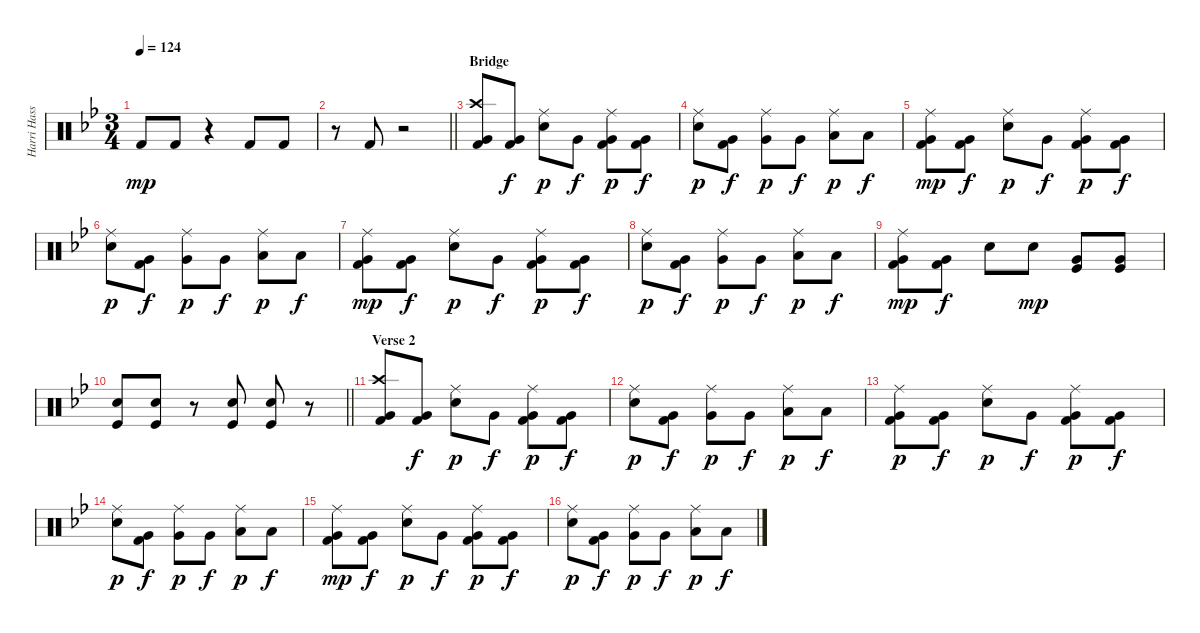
\track ("Harri Hassin (drums)" "Harri Hass") {instrument percussion}
\staff {score}
\articulation defaults
\ts (3 4)
\tempo 124
\clef neutral
\ks bb "Kick (hit) 2".8{dy mp} "Kick (hit) 2".8
r.4 "Kick (hit) 2".8 "Kick (hit) 2".8 |
\barLineRight lightlight
r.8 "Kick (hit) 2".8 r.2 |
\section ("" "Bridge")
("Crash high (hit)" "Very Low Tom (hit)" "Kick (hit) 2").8 ("Very Low Tom (hit)" "Kick (hit) 2").8{dy f} ("Ride (middle)" "Electric Snare (hit)").8{dy p} "Very Low Tom (hit)".8{dy f} ("Ride (middle)" "Very Low Tom (hit)" "Kick (hit) 2").8{dy p} ("Very Low Tom (hit)" "Kick (hit) 2").8{dy f} |
("Ride (middle)" "Electric Snare (hit)").8{dy p} ("Very Low Tom (hit)" "Kick (hit) 2").8{dy f} ("Ride (middle)" "Very Low Tom (hit)").8{dy p} "Very Low Tom (hit)".8{dy f} ("Ride (middle)" "Low Tom (hit)").8{dy p} "Low Tom (hit)".8{dy f} |
("Ride (middle)" "Very Low Tom (hit)" "Kick (hit) 2").8{dy mp} ("Very Low Tom (hit)" "Kick (hit) 2").8{dy f} ("Ride (middle)" "Electric Snare (hit)").8{dy p} "Very Low Tom (hit)".8{dy f} ("Ride (middle)" "Very Low Tom (hit)" "Kick (hit) 2").8{dy p} ("Very Low Tom (hit)" "Kick (hit) 2").8{dy f} |
("Ride (middle)" "Electric Snare (hit)").8{dy p} ("Very Low Tom (hit)" "Kick (hit) 2").8{dy f} ("Ride (middle)" "Very Low Tom (hit)").8{dy p} "Very Low Tom (hit)".8{dy f} ("Ride (middle)" "Low Tom (hit)").8{dy p} "Low Tom (hit)".8{dy f} |
("Ride (middle)" "Very Low Tom (hit)" "Kick (hit) 2").8{dy mp} ("Very Low Tom (hit)" "Kick (hit) 2").8{dy f} ("Ride (middle)" "Electric Snare (hit)").8{dy p} "Very Low Tom (hit)".8{dy f} ("Ride (middle)" "Very Low Tom (hit)" "Kick (hit) 2").8{dy p} ("Very Low Tom (hit)" "Kick (hit) 2").8{dy f} |
("Ride (middle)" "Electric Snare (hit)").8{dy p} ("Very Low Tom (hit)" "Kick (hit) 2").8{dy f} ("Ride (middle)" "Very Low Tom (hit)").8{dy p} "Very Low Tom (hit)".8{dy f} ("Ride (middle)" "Low Tom (hit)").8{dy p} "Low Tom (hit)".8{dy f} |
("Ride (middle)" "Very Low Tom (hit)" "Kick (hit) 2").8{dy mp} ("Very Low Tom (hit)" "Kick (hit) 2").8{dy f} "Electric Snare (hit)".8 "Electric Snare (hit)".8{dy mp} ("Very Low Tom (hit)" "Kick (hit)").8 ("Very Low Tom (hit)" "Kick (hit)").8 |
\barLineRight lightlight
("Electric Snare (hit)" "Kick (hit)").8 ("Electric Snare (hit)" "Kick (hit)").8 r.8 ("Electric Snare (hit)" "Kick (hit)").8 ("Electric Snare (hit)" "Kick (hit)").8 r.8 |
\section ("" "Verse 2")
("Crash high (hit)" "Very Low Tom (hit)" "Kick (hit) 2").8 ("Very Low Tom (hit)" "Kick (hit) 2").8{dy f} ("Ride (middle)" "Electric Snare (hit)").8{dy p} "Very Low Tom (hit)".8{dy f} ("Ride (middle)" "Very Low Tom (hit)" "Kick (hit) 2").8{dy p} ("Very Low Tom (hit)" "Kick (hit) 2").8{dy f} |
("Ride (middle)" "Electric Snare (hit)").8{dy p} ("Very Low Tom (hit)" "Kick (hit) 2").8{dy f} ("Ride (middle)" "Very Low Tom (hit)").8{dy p} "Very Low Tom (hit)".8{dy f} ("Ride (middle)" "Low Tom (hit)").8{dy p} "Low Tom (hit)".8{dy f} |
("Ride (middle)" "Very Low Tom (hit)" "Kick (hit) 2").8{dy p} ("Very Low Tom (hit)" "Kick (hit) 2").8{dy f} ("Ride (middle)" "Electric Snare (hit)").8{dy p} "Very Low Tom (hit)".8{dy f} ("Ride (middle)" "Very Low Tom (hit)" "Kick (hit) 2").8{dy p} ("Very Low Tom (hit)" "Kick (hit) 2").8{dy f} |
("Ride (middle)" "Electric Snare (hit)").8{dy p} ("Very Low Tom (hit)" "Kick (hit) 2").8{dy f} ("Ride (middle)" "Very Low Tom (hit)").8{dy p} "Very Low Tom (hit)".8{dy f} ("Ride (middle)" "Low Tom (hit)").8{dy p} "Low Tom (hit)".8{dy f} |
("Ride (middle)" "Very Low Tom (hit)" "Kick (hit) 2").8{dy mp} ("Very Low Tom (hit)" "Kick (hit) 2").8{dy f} ("Ride (middle)" "Electric Snare (hit)").8{dy p} "Very Low Tom (hit)".8{dy f} ("Ride (middle)" "Very Low Tom (hit)" "Kick (hit) 2").8{dy p} ("Very Low Tom (hit)" "Kick (hit) 2").8{dy f} |
("Ride (middle)" "Electric Snare (hit)").8{dy p} ("Very Low Tom (hit)" "Kick (hit) 2").8{dy f} ("Ride (middle)" "Very Low Tom (hit)").8{dy p} "Very Low Tom (hit)".8{dy f} ("Ride (middle)" "Low Tom (hit)").8{dy p} "Low Tom (hit)".8{dy f}
